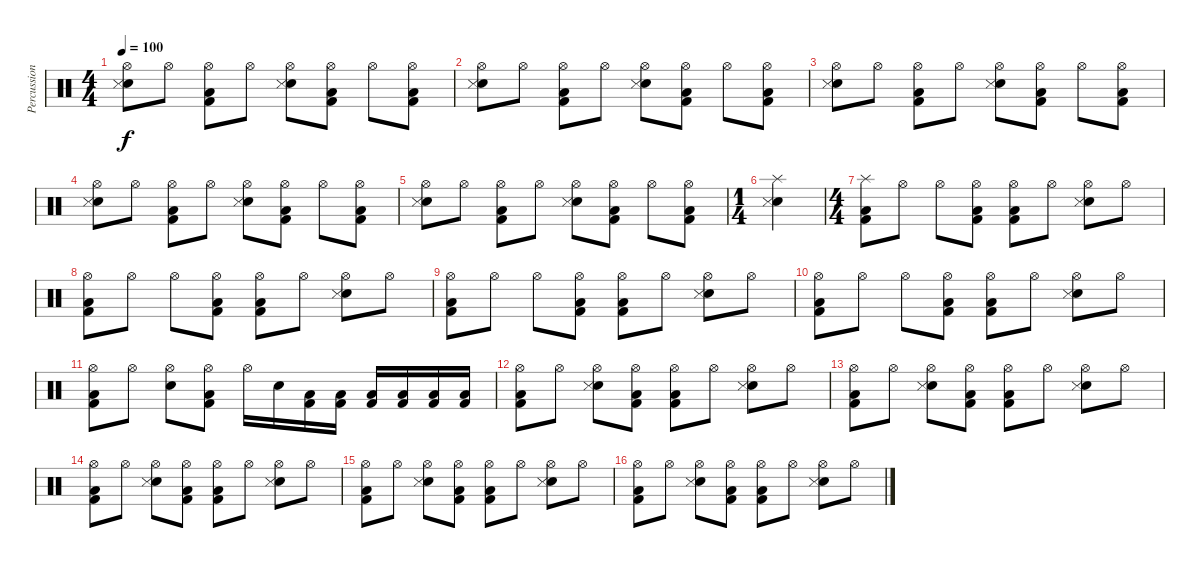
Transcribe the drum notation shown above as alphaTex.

\track ("Percussions" "Percussion") {instrument percussion}
\staff {score}
\articulation defaults
\ts (4 4)
\tempo 100
\clef neutral
\ks c
("Hi-Hat (open)" "Snare (hit) 2" "Snare (side stick) 3").8{dy f} "Hi-Hat (open)".8 ("Hi-Hat (open)" "Kick (hit) 2" "Low Floor Tom (hit)").8 "Hi-Hat (open)".8 ("Hi-Hat (open)" "Snare (hit) 2" "Snare (side stick) 3").8 ("Hi-Hat (open)" "Kick (hit) 2" "Low Floor Tom (hit)").8 "Hi-Hat (open)".8 ("Hi-Hat (open)" "Kick (hit) 2" "Low Floor Tom (hit)").8 |
("Hi-Hat (open)" "Snare (hit) 2" "Snare (side stick) 3").8 "Hi-Hat (open)".8 ("Hi-Hat (open)" "Kick (hit) 2" "Low Floor Tom (hit)").8 "Hi-Hat (open)".8 ("Hi-Hat (open)" "Snare (hit) 2" "Snare (side stick) 3").8 ("Hi-Hat (open)" "Kick (hit) 2" "Low Floor Tom (hit)").8 "Hi-Hat (open)".8 ("Hi-Hat (open)" "Kick (hit) 2" "Low Floor Tom (hit)").8 |
("Hi-Hat (open)" "Snare (hit) 2" "Snare (side stick) 3").8 "Hi-Hat (open)".8 ("Hi-Hat (open)" "Kick (hit) 2" "Low Floor Tom (hit)").8 "Hi-Hat (open)".8 ("Hi-Hat (open)" "Snare (hit) 2" "Snare (side stick) 3").8 ("Hi-Hat (open)" "Kick (hit) 2" "Low Floor Tom (hit)").8 "Hi-Hat (open)".8 ("Hi-Hat (open)" "Kick (hit) 2" "Low Floor Tom (hit)").8 |
("Hi-Hat (open)" "Snare (hit) 2" "Snare (side stick) 3").8 "Hi-Hat (open)".8 ("Hi-Hat (open)" "Kick (hit) 2" "Low Floor Tom (hit)").8 "Hi-Hat (open)".8 ("Hi-Hat (open)" "Snare (hit) 2" "Snare (side stick) 3").8 ("Hi-Hat (open)" "Kick (hit) 2" "Low Floor Tom (hit)").8 "Hi-Hat (open)".8 ("Hi-Hat (open)" "Kick (hit) 2" "Low Floor Tom (hit)").8 |
("Hi-Hat (open)" "Snare (hit) 2" "Snare (side stick) 3").8 "Hi-Hat (open)".8 ("Hi-Hat (open)" "Kick (hit) 2" "Low Floor Tom (hit)").8 "Hi-Hat (open)".8 ("Hi-Hat (open)" "Snare (hit) 2" "Snare (side stick) 3").8 ("Hi-Hat (open)" "Kick (hit) 2" "Low Floor Tom (hit)").8 "Hi-Hat (open)".8 ("Hi-Hat (open)" "Kick (hit) 2" "Low Floor Tom (hit)").8 |
\ts (1 4)
("Splash (hit)" "Snare (hit) 2" "Snare (side stick) 3").4 |
\ts (4 4)
("Splash (hit)" "Kick (hit) 2" "Low Floor Tom (hit)").8 "Hi-Hat (open)".8 "Hi-Hat (open)".8 ("Hi-Hat (open)" "Kick (hit) 2" "Low Floor Tom (hit)").8 ("Hi-Hat (open)" "Kick (hit) 2" "Low Floor Tom (hit)").8 "Hi-Hat (open)".8 ("Hi-Hat (open)" "Snare (hit) 2" "Snare (side stick) 3").8 "Hi-Hat (open)".8 |
("Hi-Hat (open)" "Kick (hit) 2" "Low Floor Tom (hit)").8 "Hi-Hat (open)".8 "Hi-Hat (open)".8 ("Hi-Hat (open)" "Kick (hit) 2" "Low Floor Tom (hit)").8 ("Hi-Hat (open)" "Kick (hit) 2" "Low Floor Tom (hit)").8 "Hi-Hat (open)".8 ("Hi-Hat (open)" "Snare (hit) 2" "Snare (side stick) 3").8 "Hi-Hat (open)".8 |
("Hi-Hat (open)" "Kick (hit) 2" "Low Floor Tom (hit)").8 "Hi-Hat (open)".8 "Hi-Hat (open)".8 ("Hi-Hat (open)" "Kick (hit) 2" "Low Floor Tom (hit)").8 ("Hi-Hat (open)" "Kick (hit) 2" "Low Floor Tom (hit)").8 "Hi-Hat (open)".8 ("Hi-Hat (open)" "Snare (hit) 2" "Snare (side stick) 3").8 "Hi-Hat (open)".8 |
("Hi-Hat (open)" "Kick (hit) 2" "Low Floor Tom (hit)").8 "Hi-Hat (open)".8 "Hi-Hat (open)".8 ("Hi-Hat (open)" "Kick (hit) 2" "Low Floor Tom (hit)").8 ("Hi-Hat (open)" "Kick (hit) 2" "Low Floor Tom (hit)").8 "Hi-Hat (open)".8 ("Hi-Hat (open)" "Snare (hit) 2" "Snare (side stick) 3").8 "Hi-Hat (open)".8 |
("Hi-Hat (open)" "Kick (hit) 2" "Low Floor Tom (hit)").8 "Hi-Hat (open)".8 ("Hi-Hat (open)" "Snare (hit) 2").8 ("Hi-Hat (open)" "Kick (hit) 2" "Low Floor Tom (hit)").8 "Hi-Hat (open)".16 "Snare (hit) 2".16 ("Kick (hit) 2" "Low Floor Tom (hit)").16 ("Kick (hit) 2" "Low Floor Tom (hit)").16 ("Kick (hit) 2" "Low Floor Tom (hit)").16 ("Kick (hit) 2" "Low Floor Tom (hit)").16 ("Kick (hit) 2" "Low Floor Tom (hit)").16 ("Kick (hit) 2" "Low Floor Tom (hit)").16 |
("Hi-Hat (open)" "Kick (hit) 2" "Low Floor Tom (hit)").8 "Hi-Hat (open)".8 ("Hi-Hat (open)" "Snare (hit) 2" "Snare (side stick) 3").8 ("Hi-Hat (open)" "Kick (hit) 2" "Low Floor Tom (hit)").8 ("Hi-Hat (open)" "Kick (hit) 2" "Low Floor Tom (hit)").8 "Hi-Hat (open)".8 ("Hi-Hat (open)" "Snare (hit) 2" "Snare (side stick) 3").8 "Hi-Hat (open)".8 |
("Hi-Hat (open)" "Kick (hit) 2" "Low Floor Tom (hit)").8 "Hi-Hat (open)".8 ("Hi-Hat (open)" "Snare (hit) 2" "Snare (side stick) 3").8 ("Hi-Hat (open)" "Kick (hit) 2" "Low Floor Tom (hit)").8 ("Hi-Hat (open)" "Kick (hit) 2" "Low Floor Tom (hit)").8 "Hi-Hat (open)".8 ("Hi-Hat (open)" "Snare (hit) 2" "Snare (side stick) 3").8 "Hi-Hat (open)".8 |
("Hi-Hat (open)" "Kick (hit) 2" "Low Floor Tom (hit)").8 "Hi-Hat (open)".8 ("Hi-Hat (open)" "Snare (hit) 2" "Snare (side stick) 3").8 ("Hi-Hat (open)" "Kick (hit) 2" "Low Floor Tom (hit)").8 ("Hi-Hat (open)" "Kick (hit) 2" "Low Floor Tom (hit)").8 "Hi-Hat (open)".8 ("Hi-Hat (open)" "Snare (hit) 2" "Snare (side stick) 3").8 "Hi-Hat (open)".8 |
("Hi-Hat (open)" "Kick (hit) 2" "Low Floor Tom (hit)").8 "Hi-Hat (open)".8 ("Hi-Hat (open)" "Snare (hit) 2" "Snare (side stick) 3").8 ("Hi-Hat (open)" "Kick (hit) 2" "Low Floor Tom (hit)").8 ("Hi-Hat (open)" "Kick (hit) 2" "Low Floor Tom (hit)").8 "Hi-Hat (open)".8 ("Hi-Hat (open)" "Snare (hit) 2" "Snare (side stick) 3").8 "Hi-Hat (open)".8 |
("Hi-Hat (open)" "Kick (hit) 2" "Low Floor Tom (hit)").8 "Hi-Hat (open)".8 ("Hi-Hat (open)" "Snare (hit) 2" "Snare (side stick) 3").8 ("Hi-Hat (open)" "Kick (hit) 2" "Low Floor Tom (hit)").8 ("Hi-Hat (open)" "Kick (hit) 2" "Low Floor Tom (hit)").8 "Hi-Hat (open)".8 ("Hi-Hat (open)" "Snare (hit) 2" "Snare (side stick) 3").8 "Hi-Hat (open)".8
